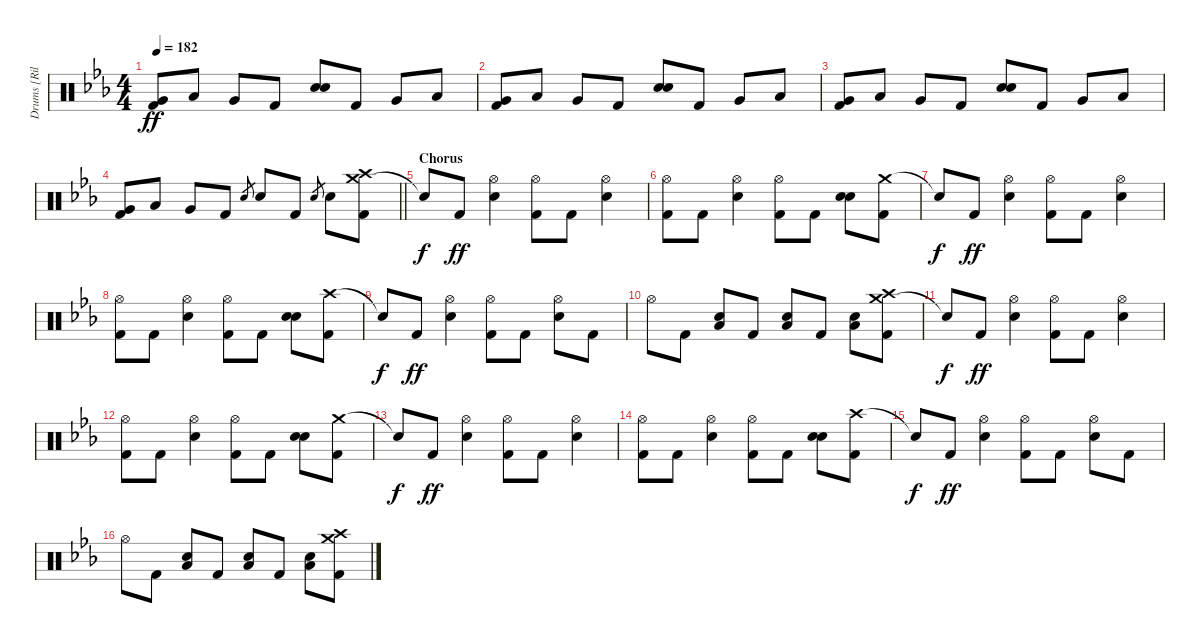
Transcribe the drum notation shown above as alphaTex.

\track ("Drums [Riley]" "Drums [Ril") {instrument percussion}
\staff {score}
\articulation defaults
\ts (4 4)
\tempo 182
\clef neutral
\ks eb
("Very Low Tom (hit)" "Kick (hit) 2").8{dy ff} "Low Tom (hit)".8 "Very Low Tom (hit)".8 "Kick (hit) 2".8 ("Electric Snare (hit)" "Electric Snare (hit)").8{bu 60} "Kick (hit) 2".8 "Very Low Tom (hit)".8 "Low Tom (hit)".8 |
("Very Low Tom (hit)" "Kick (hit) 2").8 "Low Tom (hit)".8 "Very Low Tom (hit)".8 "Kick (hit) 2".8 ("Electric Snare (hit)" "Electric Snare (hit)").8{bu 60} "Kick (hit) 2".8 "Very Low Tom (hit)".8 "Low Tom (hit)".8 |
("Very Low Tom (hit)" "Kick (hit) 2").8 "Low Tom (hit)".8 "Very Low Tom (hit)".8 "Kick (hit) 2".8 ("Electric Snare (hit)" "Electric Snare (hit)").8{bu 60} "Kick (hit) 2".8 "Very Low Tom (hit)".8 "Low Tom (hit)".8 |
\barLineRight lightlight
("Very Low Tom (hit)" "Kick (hit) 2").8 "Low Tom (hit)".8 "Very Low Tom (hit)".8 "Kick (hit) 2".8 "Electric Snare (hit)".8{gr} "Electric Snare (hit)".8 "Kick (hit) 2".8 "Electric Snare (hit)".8{gr} "Electric Snare (hit)".8 ("Crash medium (hit)" "Crash high (hit)" "Kick (hit) 2").8 |
\section ("" "Chorus")
"Snare (hit)"{t}.8{dy f} "Kick (hit) 2".8{dy ff} ("Hi-Hat (open)" "Electric Snare (hit)").4 ("Hi-Hat (open)" "Kick (hit) 2").8 "Kick (hit) 2".8 ("Hi-Hat (open)" "Electric Snare (hit)").4 |
("Hi-Hat (open)" "Kick (hit) 2").8 "Kick (hit) 2".8 ("Hi-Hat (open)" "Electric Snare (hit)").4 ("Hi-Hat (open)" "Kick (hit) 2").8 "Kick (hit) 2".8 ("Electric Snare (hit)" "Electric Snare (hit)").8{bu 60} ("Crash medium (hit)" "Kick (hit) 2").8 |
"Snare (hit)"{t}.8{dy f} "Kick (hit) 2".8{dy ff} ("Hi-Hat (open)" "Electric Snare (hit)").4 ("Hi-Hat (open)" "Kick (hit) 2").8 "Kick (hit) 2".8 ("Hi-Hat (open)" "Electric Snare (hit)").4 |
("Hi-Hat (open)" "Kick (hit) 2").8 "Kick (hit) 2".8 ("Hi-Hat (open)" "Electric Snare (hit)").4 ("Hi-Hat (open)" "Kick (hit) 2").8 "Kick (hit) 2".8 ("Electric Snare (hit)" "Electric Snare (hit)").8{bu 60} ("Crash high (hit)" "Kick (hit) 2").8 |
"Snare (hit)"{t}.8{dy f} "Kick (hit) 2".8{dy ff} ("Hi-Hat (open)" "Electric Snare (hit)").4 ("Hi-Hat (open)" "Kick (hit) 2").8 "Kick (hit) 2".8 ("Hi-Hat (open)" "Electric Snare (hit)").8 "Kick (hit) 2".8 |
"Hi-Hat (open)".8 "Kick (hit) 2".8 ("Low Tom (hit)" "Electric Snare (hit)").8{bu 60} "Kick (hit) 2".8 ("Low Tom (hit)" "Electric Snare (hit)").8{bu 60} "Kick (hit) 2".8 ("Low Tom (hit)" "Electric Snare (hit)").8{bu 60} ("Crash medium (hit)" "Crash high (hit)" "Kick (hit) 2").8 |
"Snare (hit)"{t}.8{dy f} "Kick (hit) 2".8{dy ff} ("Hi-Hat (open)" "Electric Snare (hit)").4 ("Hi-Hat (open)" "Kick (hit) 2").8 "Kick (hit) 2".8 ("Hi-Hat (open)" "Electric Snare (hit)").4 |
("Hi-Hat (open)" "Kick (hit) 2").8 "Kick (hit) 2".8 ("Hi-Hat (open)" "Electric Snare (hit)").4 ("Hi-Hat (open)" "Kick (hit) 2").8 "Kick (hit) 2".8 ("Electric Snare (hit)" "Electric Snare (hit)").8{bu 60} ("Crash medium (hit)" "Kick (hit) 2").8 |
"Snare (hit)"{t}.8{dy f} "Kick (hit) 2".8{dy ff} ("Hi-Hat (open)" "Electric Snare (hit)").4 ("Hi-Hat (open)" "Kick (hit) 2").8 "Kick (hit) 2".8 ("Hi-Hat (open)" "Electric Snare (hit)").4 |
("Hi-Hat (open)" "Kick (hit) 2").8 "Kick (hit) 2".8 ("Hi-Hat (open)" "Electric Snare (hit)").4 ("Hi-Hat (open)" "Kick (hit) 2").8 "Kick (hit) 2".8 ("Electric Snare (hit)" "Electric Snare (hit)").8{bu 60} ("Crash high (hit)" "Kick (hit) 2").8 |
"Snare (hit)"{t}.8{dy f} "Kick (hit) 2".8{dy ff} ("Hi-Hat (open)" "Electric Snare (hit)").4 ("Hi-Hat (open)" "Kick (hit) 2").8 "Kick (hit) 2".8 ("Hi-Hat (open)" "Electric Snare (hit)").8 "Kick (hit) 2".8 |
"Hi-Hat (open)".8 "Kick (hit) 2".8 ("Low Tom (hit)" "Electric Snare (hit)").8{bu 60} "Kick (hit) 2".8 ("Low Tom (hit)" "Electric Snare (hit)").8{bu 60} "Kick (hit) 2".8 ("Low Tom (hit)" "Electric Snare (hit)").8{bu 60} ("Crash medium (hit)" "Crash high (hit)" "Kick (hit) 2").8
